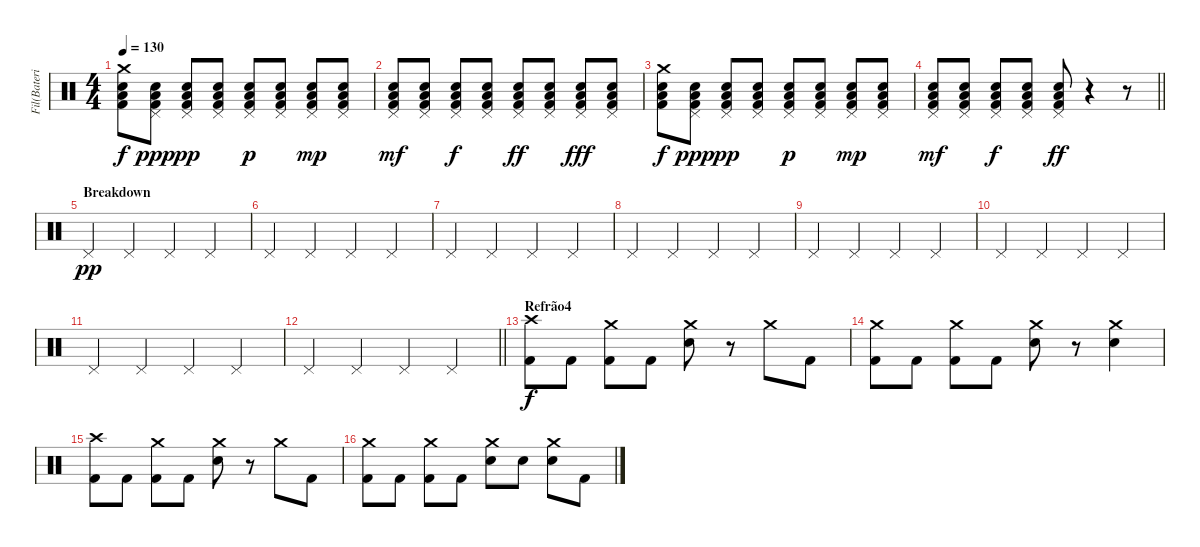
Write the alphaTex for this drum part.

\track ("Fil(Bateria)" "Fil(Bateri") {instrument percussion}
\staff {score}
\articulation defaults
\ts (4 4)
\tempo 130
\clef neutral
\ks c
("Crash medium (hit)" "Low Floor Tom (hit)" "Electric Snare (hit)" "Kick (hit) 2").8{dy f} ("Pedal Hi-Hat (hit)" "Low Floor Tom (hit)" "Electric Snare (hit)" "Kick (hit) 2").8{dy ppp} ("Pedal Hi-Hat (hit)" "Low Floor Tom (hit)" "Electric Snare (hit)" "Kick (hit) 2").8{dy pp} ("Pedal Hi-Hat (hit)" "Low Floor Tom (hit)" "Electric Snare (hit)" "Kick (hit) 2").8 ("Pedal Hi-Hat (hit)" "Low Floor Tom (hit)" "Electric Snare (hit)" "Kick (hit) 2").8{dy p} ("Pedal Hi-Hat (hit)" "Low Floor Tom (hit)" "Electric Snare (hit)" "Kick (hit) 2").8 ("Pedal Hi-Hat (hit)" "Low Floor Tom (hit)" "Electric Snare (hit)" "Kick (hit) 2").8{dy mp} ("Pedal Hi-Hat (hit)" "Low Floor Tom (hit)" "Electric Snare (hit)" "Kick (hit) 2").8 |
("Pedal Hi-Hat (hit)" "Low Floor Tom (hit)" "Electric Snare (hit)" "Kick (hit) 2").8{dy mf} ("Pedal Hi-Hat (hit)" "Low Floor Tom (hit)" "Electric Snare (hit)" "Kick (hit) 2").8 ("Pedal Hi-Hat (hit)" "Low Floor Tom (hit)" "Electric Snare (hit)" "Kick (hit) 2").8{dy f} ("Pedal Hi-Hat (hit)" "Low Floor Tom (hit)" "Electric Snare (hit)" "Kick (hit) 2").8 ("Pedal Hi-Hat (hit)" "Low Floor Tom (hit)" "Electric Snare (hit)" "Kick (hit) 2").8{dy ff} ("Pedal Hi-Hat (hit)" "Low Floor Tom (hit)" "Electric Snare (hit)" "Kick (hit) 2").8 ("Pedal Hi-Hat (hit)" "Low Floor Tom (hit)" "Electric Snare (hit)" "Kick (hit) 2").8{dy fff} ("Pedal Hi-Hat (hit)" "Low Floor Tom (hit)" "Electric Snare (hit)" "Kick (hit) 2").8 |
("Crash medium (hit)" "Low Floor Tom (hit)" "Electric Snare (hit)" "Kick (hit) 2").8{dy f} ("Pedal Hi-Hat (hit)" "Low Floor Tom (hit)" "Electric Snare (hit)" "Kick (hit) 2").8{dy ppp} ("Pedal Hi-Hat (hit)" "Low Floor Tom (hit)" "Electric Snare (hit)" "Kick (hit) 2").8{dy pp} ("Pedal Hi-Hat (hit)" "Low Floor Tom (hit)" "Electric Snare (hit)" "Kick (hit) 2").8 ("Pedal Hi-Hat (hit)" "Low Floor Tom (hit)" "Electric Snare (hit)" "Kick (hit) 2").8{dy p} ("Pedal Hi-Hat (hit)" "Low Floor Tom (hit)" "Electric Snare (hit)" "Kick (hit) 2").8 ("Pedal Hi-Hat (hit)" "Low Floor Tom (hit)" "Electric Snare (hit)" "Kick (hit) 2").8{dy mp} ("Pedal Hi-Hat (hit)" "Low Floor Tom (hit)" "Electric Snare (hit)" "Kick (hit) 2").8 |
\barLineRight lightlight
("Pedal Hi-Hat (hit)" "Low Floor Tom (hit)" "Electric Snare (hit)" "Kick (hit) 2").8{dy mf} ("Pedal Hi-Hat (hit)" "Low Floor Tom (hit)" "Electric Snare (hit)" "Kick (hit) 2").8 ("Pedal Hi-Hat (hit)" "Low Floor Tom (hit)" "Electric Snare (hit)" "Kick (hit) 2").8{dy f} ("Pedal Hi-Hat (hit)" "Low Floor Tom (hit)" "Electric Snare (hit)" "Kick (hit) 2").8 ("Pedal Hi-Hat (hit)" "Low Floor Tom (hit)" "Electric Snare (hit)" "Kick (hit) 2").8{dy ff} r.4 r.8 |
\section ("" "Breakdown")
"Pedal Hi-Hat (hit)".4{dy pp} "Pedal Hi-Hat (hit)".4 "Pedal Hi-Hat (hit)".4 "Pedal Hi-Hat (hit)".4 |
"Pedal Hi-Hat (hit)".4 "Pedal Hi-Hat (hit)".4 "Pedal Hi-Hat (hit)".4 "Pedal Hi-Hat (hit)".4 |
"Pedal Hi-Hat (hit)".4 "Pedal Hi-Hat (hit)".4 "Pedal Hi-Hat (hit)".4 "Pedal Hi-Hat (hit)".4 |
"Pedal Hi-Hat (hit)".4 "Pedal Hi-Hat (hit)".4 "Pedal Hi-Hat (hit)".4 "Pedal Hi-Hat (hit)".4 |
"Pedal Hi-Hat (hit)".4 "Pedal Hi-Hat (hit)".4 "Pedal Hi-Hat (hit)".4 "Pedal Hi-Hat (hit)".4 |
"Pedal Hi-Hat (hit)".4 "Pedal Hi-Hat (hit)".4 "Pedal Hi-Hat (hit)".4 "Pedal Hi-Hat (hit)".4 |
"Pedal Hi-Hat (hit)".4 "Pedal Hi-Hat (hit)".4 "Pedal Hi-Hat (hit)".4 "Pedal Hi-Hat (hit)".4 |
\barLineRight lightlight "Pedal Hi-Hat (hit)".4 "Pedal Hi-Hat (hit)".4 "Pedal Hi-Hat (hit)".4 "Pedal Hi-Hat (hit)".4
|
\section ("" "Refrão4")
("Crash high (hit)" "Kick (hit) 2").8{dy f} "Kick (hit) 2".8 ("Crash medium (hit)" "Kick (hit) 2").8 "Kick (hit) 2".8 ("Crash medium (hit)" "Electric Snare (hit)").8 r.8 "Crash medium (hit)".8 "Kick (hit) 2".8 |
("Crash medium (hit)" "Kick (hit) 2").8 "Kick (hit) 2".8 ("Crash medium (hit)" "Kick (hit) 2").8 "Kick (hit) 2".8 ("Crash medium (hit)" "Electric Snare (hit)").8 r.8 ("Crash medium (hit)" "Electric Snare (hit)").4 |
("Crash high (hit)" "Kick (hit) 2").8 "Kick (hit) 2".8 ("Crash medium (hit)" "Kick (hit) 2").8 "Kick (hit) 2".8 ("Crash medium (hit)" "Electric Snare (hit)").8 r.8 "Crash medium (hit)".8 "Kick (hit) 2".8 |
("Crash medium (hit)" "Kick (hit) 2").8 "Kick (hit) 2".8 ("Crash medium (hit)" "Kick (hit) 2").8 "Kick (hit) 2".8 ("Crash medium (hit)" "Electric Snare (hit)").8 "Electric Snare (hit)".8 ("Crash medium (hit)" "Electric Snare (hit)").8 "Kick (hit) 2".8
